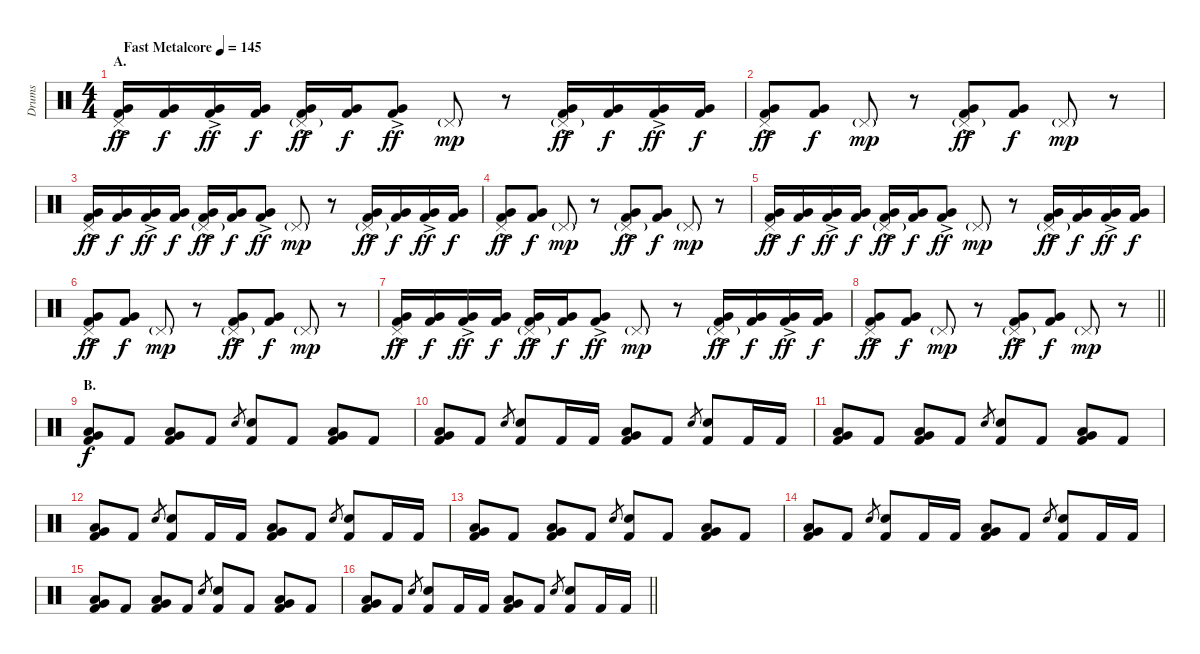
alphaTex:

\track ("Drums" "Drums") {instrument percussion}
\staff {score}
\articulation defaults
\ts (4 4)
\section ("" "A.")
\tempo (145 "Fast Metalcore")
\clef neutral
\ks c
("Pedal Hi-Hat (hit)" "Very Low Tom (hit)"{ac} "Kick (hit) 2").16{dy ff} ("Very Low Tom (hit)" "Kick (hit) 2").16{dy f} ("Very Low Tom (hit)"{ac} "Kick (hit) 2").16{dy ff} ("Very Low Tom (hit)" "Kick (hit) 2").16{dy f} ("Pedal Hi-Hat (hit)"{g} "Very Low Tom (hit)"{ac} "Kick (hit) 2").16{dy ff} ("Very Low Tom (hit)" "Kick (hit) 2").16{dy f} ("Very Low Tom (hit)"{ac} "Kick (hit) 2").8{dy ff} "Pedal Hi-Hat (hit)"{g}.8{dy mp} r.8 ("Pedal Hi-Hat (hit)"{g} "Very Low Tom (hit)"{ac} "Kick (hit) 2").16{dy ff} ("Very Low Tom (hit)" "Kick (hit) 2").16{dy f} ("Very Low Tom (hit)"{ac} "Kick (hit) 2").16{dy ff} ("Very Low Tom (hit)" "Kick (hit) 2").16{dy f} |
("Pedal Hi-Hat (hit)" "Very Low Tom (hit)"{ac} "Kick (hit) 2").8{dy ff} ("Very Low Tom (hit)" "Kick (hit) 2").8{dy f} "Pedal Hi-Hat (hit)"{g}.8{dy mp} r.8 ("Pedal Hi-Hat (hit)"{g} "Very Low Tom (hit)"{ac} "Kick (hit) 2").8{dy ff} ("Very Low Tom (hit)" "Kick (hit) 2").8{dy f} "Pedal Hi-Hat (hit)"{g}.8{dy mp} r.8 |
("Pedal Hi-Hat (hit)" "Very Low Tom (hit)"{ac} "Kick (hit) 2").16{dy ff} ("Very Low Tom (hit)" "Kick (hit) 2").16{dy f} ("Very Low Tom (hit)"{ac} "Kick (hit) 2").16{dy ff} ("Very Low Tom (hit)" "Kick (hit) 2").16{dy f} ("Pedal Hi-Hat (hit)"{g} "Very Low Tom (hit)"{ac} "Kick (hit) 2").16{dy ff} ("Very Low Tom (hit)" "Kick (hit) 2").16{dy f} ("Very Low Tom (hit)"{ac} "Kick (hit) 2").8{dy ff} "Pedal Hi-Hat (hit)"{g}.8{dy mp} r.8 ("Pedal Hi-Hat (hit)"{g} "Very Low Tom (hit)"{ac} "Kick (hit) 2").16{dy ff} ("Very Low Tom (hit)" "Kick (hit) 2").16{dy f} ("Very Low Tom (hit)"{ac} "Kick (hit) 2").16{dy ff} ("Very Low Tom (hit)" "Kick (hit) 2").16{dy f} |
("Pedal Hi-Hat (hit)" "Very Low Tom (hit)"{ac} "Kick (hit) 2").8{dy ff} ("Very Low Tom (hit)" "Kick (hit) 2").8{dy f} "Pedal Hi-Hat (hit)"{g}.8{dy mp} r.8 ("Pedal Hi-Hat (hit)"{g} "Very Low Tom (hit)"{ac} "Kick (hit) 2").8{dy ff} ("Very Low Tom (hit)" "Kick (hit) 2").8{dy f} "Pedal Hi-Hat (hit)"{g}.8{dy mp} r.8 |
("Pedal Hi-Hat (hit)" "Very Low Tom (hit)"{ac} "Kick (hit) 2").16{dy ff} ("Very Low Tom (hit)" "Kick (hit) 2").16{dy f} ("Very Low Tom (hit)"{ac} "Kick (hit) 2").16{dy ff} ("Very Low Tom (hit)" "Kick (hit) 2").16{dy f} ("Pedal Hi-Hat (hit)"{g} "Very Low Tom (hit)"{ac} "Kick (hit) 2").16{dy ff} ("Very Low Tom (hit)" "Kick (hit) 2").16{dy f} ("Very Low Tom (hit)"{ac} "Kick (hit) 2").8{dy ff} "Pedal Hi-Hat (hit)"{g}.8{dy mp} r.8 ("Pedal Hi-Hat (hit)"{g} "Very Low Tom (hit)"{ac} "Kick (hit) 2").16{dy ff} ("Very Low Tom (hit)" "Kick (hit) 2").16{dy f} ("Very Low Tom (hit)"{ac} "Kick (hit) 2").16{dy ff} ("Very Low Tom (hit)" "Kick (hit) 2").16{dy f} |
("Pedal Hi-Hat (hit)" "Very Low Tom (hit)"{ac} "Kick (hit) 2").8{dy ff} ("Very Low Tom (hit)" "Kick (hit) 2").8{dy f} "Pedal Hi-Hat (hit)"{g}.8{dy mp} r.8 ("Pedal Hi-Hat (hit)"{g} "Very Low Tom (hit)"{ac} "Kick (hit) 2").8{dy ff} ("Very Low Tom (hit)" "Kick (hit) 2").8{dy f} "Pedal Hi-Hat (hit)"{g}.8{dy mp} r.8 |
("Pedal Hi-Hat (hit)" "Very Low Tom (hit)"{ac} "Kick (hit) 2").16{dy ff} ("Very Low Tom (hit)" "Kick (hit) 2").16{dy f} ("Very Low Tom (hit)"{ac} "Kick (hit) 2").16{dy ff} ("Very Low Tom (hit)" "Kick (hit) 2").16{dy f} ("Pedal Hi-Hat (hit)"{g} "Very Low Tom (hit)"{ac} "Kick (hit) 2").16{dy ff} ("Very Low Tom (hit)" "Kick (hit) 2").16{dy f} ("Very Low Tom (hit)"{ac} "Kick (hit) 2").8{dy ff} "Pedal Hi-Hat (hit)"{g}.8{dy mp} r.8 ("Pedal Hi-Hat (hit)"{g} "Very Low Tom (hit)"{ac} "Kick (hit) 2").16{dy ff} ("Very Low Tom (hit)" "Kick (hit) 2").16{dy f} ("Very Low Tom (hit)"{ac} "Kick (hit) 2").16{dy ff} ("Very Low Tom (hit)" "Kick (hit) 2").16{dy f} |
\barLineRight lightlight
("Pedal Hi-Hat (hit)" "Very Low Tom (hit)"{ac} "Kick (hit) 2").8{dy ff} ("Very Low Tom (hit)" "Kick (hit) 2").8{dy f} "Pedal Hi-Hat (hit)"{g}.8{dy mp} r.8 ("Pedal Hi-Hat (hit)"{g} "Very Low Tom (hit)"{ac} "Kick (hit) 2").8{dy ff} ("Very Low Tom (hit)" "Kick (hit) 2").8{dy f} "Pedal Hi-Hat (hit)"{g}.8{dy mp} r.8 |
\section ("" "B.")
("Very Low Tom (hit)" "Low Floor Tom (hit)" "Kick (hit) 2").8{dy f} "Kick (hit) 2".8 ("Very Low Tom (hit)" "Low Floor Tom (hit)" "Kick (hit) 2").8 "Kick (hit) 2".8 "Electric Snare (hit)".8{gr} ("Electric Snare (hit)" "Kick (hit) 2").8 "Kick (hit) 2".8 ("Very Low Tom (hit)" "Low Floor Tom (hit)" "Kick (hit) 2").8 "Kick (hit) 2".8 |
("Very Low Tom (hit)" "Low Floor Tom (hit)" "Kick (hit) 2").8 "Kick (hit) 2".8 "Electric Snare (hit)".8{gr} ("Electric Snare (hit)" "Kick (hit) 2").8 "Kick (hit) 2".16 "Kick (hit) 2".16 ("Very Low Tom (hit)" "Low Floor Tom (hit)" "Kick (hit) 2").8 "Kick (hit) 2".8 "Electric Snare (hit)".8{gr} ("Electric Snare (hit)" "Kick (hit) 2").8 "Kick (hit) 2".16 "Kick (hit) 2".16 |
("Very Low Tom (hit)" "Low Floor Tom (hit)" "Kick (hit) 2").8 "Kick (hit) 2".8 ("Very Low Tom (hit)" "Low Floor Tom (hit)" "Kick (hit) 2").8 "Kick (hit) 2".8 "Electric Snare (hit)".8{gr} ("Electric Snare (hit)" "Kick (hit) 2").8 "Kick (hit) 2".8 ("Very Low Tom (hit)" "Low Floor Tom (hit)" "Kick (hit) 2").8 "Kick (hit) 2".8 |
("Very Low Tom (hit)" "Low Floor Tom (hit)" "Kick (hit) 2").8 "Kick (hit) 2".8 "Electric Snare (hit)".8{gr} ("Electric Snare (hit)" "Kick (hit) 2").8 "Kick (hit) 2".16 "Kick (hit) 2".16 ("Very Low Tom (hit)" "Low Floor Tom (hit)" "Kick (hit) 2").8 "Kick (hit) 2".8 "Electric Snare (hit)".8{gr} ("Electric Snare (hit)" "Kick (hit) 2").8 "Kick (hit) 2".16 "Kick (hit) 2".16 |
("Very Low Tom (hit)" "Low Floor Tom (hit)" "Kick (hit) 2").8 "Kick (hit) 2".8 ("Very Low Tom (hit)" "Low Floor Tom (hit)" "Kick (hit) 2").8 "Kick (hit) 2".8 "Electric Snare (hit)".8{gr} ("Electric Snare (hit)" "Kick (hit) 2").8 "Kick (hit) 2".8 ("Very Low Tom (hit)" "Low Floor Tom (hit)" "Kick (hit) 2").8 "Kick (hit) 2".8 |
("Very Low Tom (hit)" "Low Floor Tom (hit)" "Kick (hit) 2").8 "Kick (hit) 2".8 "Electric Snare (hit)".8{gr} ("Electric Snare (hit)" "Kick (hit) 2").8 "Kick (hit) 2".16 "Kick (hit) 2".16 ("Very Low Tom (hit)" "Low Floor Tom (hit)" "Kick (hit) 2").8 "Kick (hit) 2".8 "Electric Snare (hit)".8{gr} ("Electric Snare (hit)" "Kick (hit) 2").8 "Kick (hit) 2".16 "Kick (hit) 2".16 |
("Very Low Tom (hit)" "Low Floor Tom (hit)" "Kick (hit) 2").8 "Kick (hit) 2".8 ("Very Low Tom (hit)" "Low Floor Tom (hit)" "Kick (hit) 2").8 "Kick (hit) 2".8 "Electric Snare (hit)".8{gr} ("Electric Snare (hit)" "Kick (hit) 2").8 "Kick (hit) 2".8 ("Very Low Tom (hit)" "Low Floor Tom (hit)" "Kick (hit) 2").8 "Kick (hit) 2".8 |
\barLineRight lightlight
("Very Low Tom (hit)" "Low Floor Tom (hit)" "Kick (hit) 2").8 "Kick (hit) 2".8 "Electric Snare (hit)".8{gr} ("Electric Snare (hit)" "Kick (hit) 2").8 "Kick (hit) 2".16 "Kick (hit) 2".16 ("Very Low Tom (hit)" "Low Floor Tom (hit)" "Kick (hit) 2").8 "Kick (hit) 2".8 "Electric Snare (hit)".8{gr} ("Electric Snare (hit)" "Kick (hit) 2").8 "Kick (hit) 2".16 "Kick (hit) 2".16
